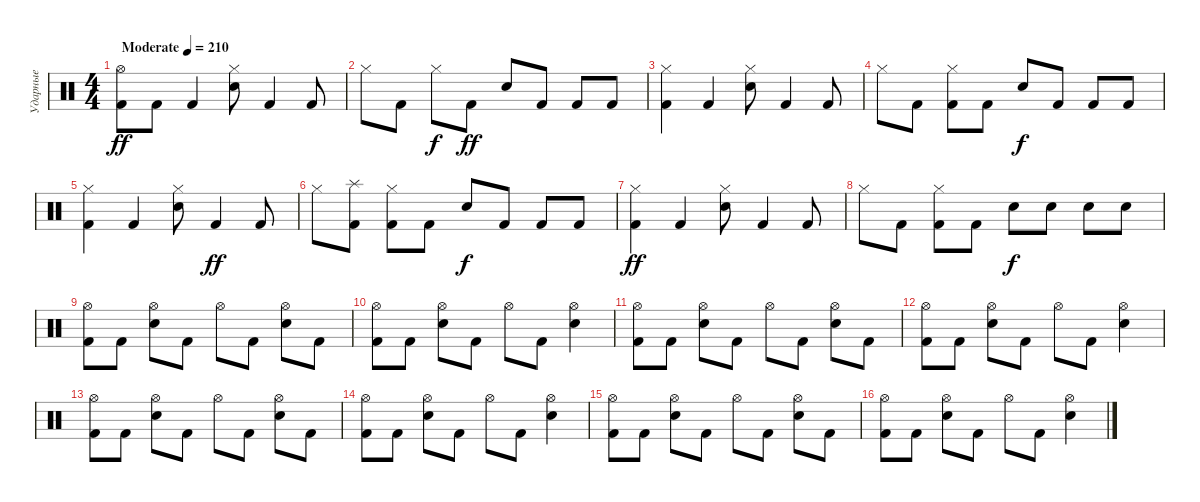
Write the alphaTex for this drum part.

\track ("Ударные" "Ударные") {instrument percussion}
\staff {score}
\articulation defaults
\ts (4 4)
\tempo (210 "Moderate")
\clef neutral
\ks c
("Hi-Hat (open)" "Kick (hit) 2").8{dy ff} "Kick (hit) 2".8 "Kick (hit) 2".4 ("Hi-Hat (closed)" "Snare (hit) 2").8 "Kick (hit) 2".4 "Kick (hit) 2".8 |
"Hi-Hat (closed)".8 "Kick (hit) 2".8 "Hi-Hat (closed)".8{dy f} "Kick (hit) 2".8{dy ff} "Snare (hit) 2".8 "Kick (hit) 2".8 "Kick (hit) 2".8 "Kick (hit) 2".8 |
("Hi-Hat (closed)" "Kick (hit) 2").4 "Kick (hit) 2".4 ("Hi-Hat (closed)" "Snare (hit) 2").8 "Kick (hit) 2".4 "Kick (hit) 2".8 |
"Hi-Hat (closed)".8 "Kick (hit) 2".8 ("Hi-Hat (closed)" "Kick (hit) 2").8 "Kick (hit) 2".8 "Snare (hit) 2".8{dy f} "Kick (hit) 2".8 "Kick (hit) 2".8 "Kick (hit) 2".8 |
("Hi-Hat (closed)" "Kick (hit) 2").4 "Kick (hit) 2".4 ("Hi-Hat (closed)" "Snare (hit) 2").8 "Kick (hit) 2".4{dy ff} "Kick (hit) 2".8 |
"Hi-Hat (closed)".8 ("Splash (hit)" "Kick (hit) 2").8 ("Hi-Hat (closed)" "Kick (hit) 2").8 "Kick (hit) 2".8 "Snare (hit) 2".8{dy f} "Kick (hit) 2".8 "Kick (hit) 2".8 "Kick (hit) 2".8 |
("Hi-Hat (closed)" "Kick (hit) 2").4{dy ff} "Kick (hit) 2".4 ("Hi-Hat (closed)" "Snare (hit) 2").8 "Kick (hit) 2".4 "Kick (hit) 2".8 |
"Hi-Hat (closed)".8 "Kick (hit) 2".8 ("Hi-Hat (closed)" "Kick (hit) 2").8 "Kick (hit) 2".8 "Snare (hit) 2".8{dy f} "Snare (hit) 2".8 "Snare (hit) 2".8 "Snare (hit) 2".8 |
("Hi-Hat (open)" "Kick (hit) 2").8 "Kick (hit) 2".8 ("Hi-Hat (open)" "Snare (hit) 2").8 "Kick (hit) 2".8 "Hi-Hat (open)".8 "Kick (hit) 2".8 ("Hi-Hat (open)" "Snare (hit) 2").8 "Kick (hit) 2".8 |
("Hi-Hat (open)" "Kick (hit) 2").8 "Kick (hit) 2".8 ("Hi-Hat (open)" "Snare (hit) 2").8 "Kick (hit) 2".8 "Hi-Hat (open)".8 "Kick (hit) 2".8 ("Hi-Hat (open)" "Snare (hit) 2").4 |
("Hi-Hat (open)" "Kick (hit) 2").8 "Kick (hit) 2".8 ("Hi-Hat (open)" "Snare (hit) 2").8 "Kick (hit) 2".8 "Hi-Hat (open)".8 "Kick (hit) 2".8 ("Hi-Hat (open)" "Snare (hit) 2").8 "Kick (hit) 2".8 |
("Hi-Hat (open)" "Kick (hit) 2").8 "Kick (hit) 2".8 ("Hi-Hat (open)" "Snare (hit) 2").8 "Kick (hit) 2".8 "Hi-Hat (open)".8 "Kick (hit) 2".8 ("Hi-Hat (open)" "Snare (hit) 2").4 |
("Hi-Hat (open)" "Kick (hit) 2").8 "Kick (hit) 2".8 ("Hi-Hat (open)" "Snare (hit) 2").8 "Kick (hit) 2".8 "Hi-Hat (open)".8 "Kick (hit) 2".8 ("Hi-Hat (open)" "Snare (hit) 2").8 "Kick (hit) 2".8 |
("Hi-Hat (open)" "Kick (hit) 2").8 "Kick (hit) 2".8 ("Hi-Hat (open)" "Snare (hit) 2").8 "Kick (hit) 2".8 "Hi-Hat (open)".8 "Kick (hit) 2".8 ("Hi-Hat (open)" "Snare (hit) 2").4 |
("Hi-Hat (open)" "Kick (hit) 2").8 "Kick (hit) 2".8 ("Hi-Hat (open)" "Snare (hit) 2").8 "Kick (hit) 2".8 "Hi-Hat (open)".8 "Kick (hit) 2".8 ("Hi-Hat (open)" "Snare (hit) 2").8 "Kick (hit) 2".8 |
("Hi-Hat (open)" "Kick (hit) 2").8 "Kick (hit) 2".8 ("Hi-Hat (open)" "Snare (hit) 2").8 "Kick (hit) 2".8 "Hi-Hat (open)".8 "Kick (hit) 2".8 ("Hi-Hat (open)" "Snare (hit) 2").4
